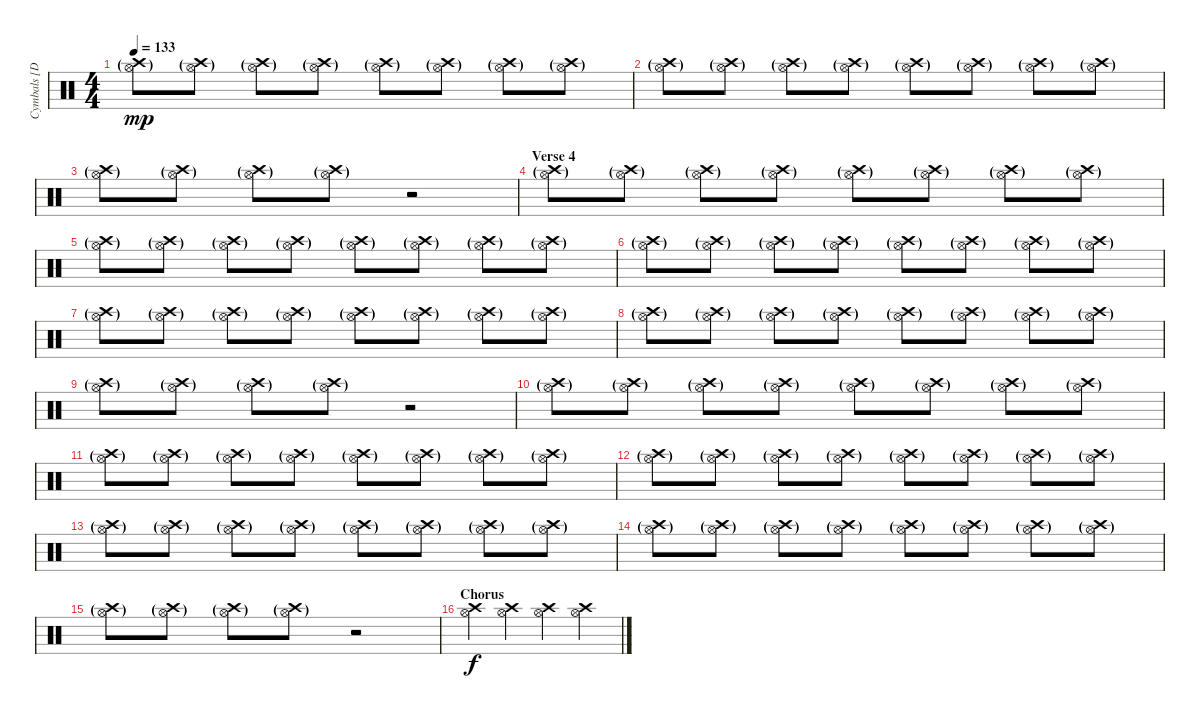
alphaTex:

\track ("Cymbals [Dave Grohl]" "Cymbals [D") {instrument percussion}
\staff {score}
\articulation defaults
\ts (4 4)
\tempo 133
\clef neutral
\ks c
("Crash high (hit)"{g} "Hi-Hat (open)"{g}).8{dy mp} ("Crash high (hit)"{g} "Hi-Hat (open)"{g}).8 ("Crash high (hit)"{g} "Hi-Hat (open)"{g}).8 ("Crash high (hit)"{g} "Hi-Hat (open)"{g}).8 ("Crash high (hit)"{g} "Hi-Hat (open)"{g}).8 ("Crash high (hit)"{g} "Hi-Hat (open)"{g}).8 ("Crash high (hit)"{g} "Hi-Hat (open)"{g}).8 ("Crash high (hit)"{g} "Hi-Hat (open)"{g}).8 |
("Crash high (hit)"{g} "Hi-Hat (open)"{g}).8 ("Crash high (hit)"{g} "Hi-Hat (open)"{g}).8 ("Crash high (hit)"{g} "Hi-Hat (open)"{g}).8 ("Crash high (hit)"{g} "Hi-Hat (open)"{g}).8 ("Crash high (hit)"{g} "Hi-Hat (open)"{g}).8 ("Crash high (hit)"{g} "Hi-Hat (open)"{g}).8 ("Crash high (hit)"{g} "Hi-Hat (open)"{g}).8 ("Crash high (hit)"{g} "Hi-Hat (open)"{g}).8 |
("Crash high (hit)"{g} "Hi-Hat (open)"{g}).8 ("Crash high (hit)"{g} "Hi-Hat (open)"{g}).8 ("Crash high (hit)"{g} "Hi-Hat (open)"{g}).8 ("Crash high (hit)"{g} "Hi-Hat (open)"{g}).8 r.2 |
\section ("" "Verse 4")
("Crash high (hit)"{g} "Hi-Hat (open)"{g}).8 ("Crash high (hit)"{g} "Hi-Hat (open)"{g}).8 ("Crash high (hit)"{g} "Hi-Hat (open)"{g}).8 ("Crash high (hit)"{g} "Hi-Hat (open)"{g}).8 ("Crash high (hit)"{g} "Hi-Hat (open)"{g}).8 ("Crash high (hit)"{g} "Hi-Hat (open)"{g}).8 ("Crash high (hit)"{g} "Hi-Hat (open)"{g}).8 ("Crash high (hit)"{g} "Hi-Hat (open)"{g}).8 |
("Crash high (hit)"{g} "Hi-Hat (open)"{g}).8 ("Crash high (hit)"{g} "Hi-Hat (open)"{g}).8 ("Crash high (hit)"{g} "Hi-Hat (open)"{g}).8 ("Crash high (hit)"{g} "Hi-Hat (open)"{g}).8 ("Crash high (hit)"{g} "Hi-Hat (open)"{g}).8 ("Crash high (hit)"{g} "Hi-Hat (open)"{g}).8 ("Crash high (hit)"{g} "Hi-Hat (open)"{g}).8 ("Crash high (hit)"{g} "Hi-Hat (open)"{g}).8 |
("Crash high (hit)"{g} "Hi-Hat (open)"{g}).8 ("Crash high (hit)"{g} "Hi-Hat (open)"{g}).8 ("Crash high (hit)"{g} "Hi-Hat (open)"{g}).8 ("Crash high (hit)"{g} "Hi-Hat (open)"{g}).8 ("Crash high (hit)"{g} "Hi-Hat (open)"{g}).8 ("Crash high (hit)"{g} "Hi-Hat (open)"{g}).8 ("Crash high (hit)"{g} "Hi-Hat (open)"{g}).8 ("Crash high (hit)"{g} "Hi-Hat (open)"{g}).8 |
("Crash high (hit)"{g} "Hi-Hat (open)"{g}).8 ("Crash high (hit)"{g} "Hi-Hat (open)"{g}).8 ("Crash high (hit)"{g} "Hi-Hat (open)"{g}).8 ("Crash high (hit)"{g} "Hi-Hat (open)"{g}).8 ("Crash high (hit)"{g} "Hi-Hat (open)"{g}).8 ("Crash high (hit)"{g} "Hi-Hat (open)"{g}).8 ("Crash high (hit)"{g} "Hi-Hat (open)"{g}).8 ("Crash high (hit)"{g} "Hi-Hat (open)"{g}).8 |
("Crash high (hit)"{g} "Hi-Hat (open)"{g}).8 ("Crash high (hit)"{g} "Hi-Hat (open)"{g}).8 ("Crash high (hit)"{g} "Hi-Hat (open)"{g}).8 ("Crash high (hit)"{g} "Hi-Hat (open)"{g}).8 ("Crash high (hit)"{g} "Hi-Hat (open)"{g}).8 ("Crash high (hit)"{g} "Hi-Hat (open)"{g}).8 ("Crash high (hit)"{g} "Hi-Hat (open)"{g}).8 ("Crash high (hit)"{g} "Hi-Hat (open)"{g}).8 |
("Crash high (hit)"{g} "Hi-Hat (open)"{g}).8 ("Crash high (hit)"{g} "Hi-Hat (open)"{g}).8 ("Crash high (hit)"{g} "Hi-Hat (open)"{g}).8 ("Crash high (hit)"{g} "Hi-Hat (open)"{g}).8 r.2 |
("Crash high (hit)"{g} "Hi-Hat (open)"{g}).8 ("Crash high (hit)"{g} "Hi-Hat (open)"{g}).8 ("Crash high (hit)"{g} "Hi-Hat (open)"{g}).8 ("Crash high (hit)"{g} "Hi-Hat (open)"{g}).8 ("Crash high (hit)"{g} "Hi-Hat (open)"{g}).8 ("Crash high (hit)"{g} "Hi-Hat (open)"{g}).8 ("Crash high (hit)"{g} "Hi-Hat (open)"{g}).8 ("Crash high (hit)"{g} "Hi-Hat (open)"{g}).8 |
("Crash high (hit)"{g} "Hi-Hat (open)"{g}).8 ("Crash high (hit)"{g} "Hi-Hat (open)"{g}).8 ("Crash high (hit)"{g} "Hi-Hat (open)"{g}).8 ("Crash high (hit)"{g} "Hi-Hat (open)"{g}).8 ("Crash high (hit)"{g} "Hi-Hat (open)"{g}).8 ("Crash high (hit)"{g} "Hi-Hat (open)"{g}).8 ("Crash high (hit)"{g} "Hi-Hat (open)"{g}).8 ("Crash high (hit)"{g} "Hi-Hat (open)"{g}).8 |
("Crash high (hit)"{g} "Hi-Hat (open)"{g}).8 ("Crash high (hit)"{g} "Hi-Hat (open)"{g}).8 ("Crash high (hit)"{g} "Hi-Hat (open)"{g}).8 ("Crash high (hit)"{g} "Hi-Hat (open)"{g}).8 ("Crash high (hit)"{g} "Hi-Hat (open)"{g}).8 ("Crash high (hit)"{g} "Hi-Hat (open)"{g}).8 ("Crash high (hit)"{g} "Hi-Hat (open)"{g}).8 ("Crash high (hit)"{g} "Hi-Hat (open)"{g}).8 |
("Crash high (hit)"{g} "Hi-Hat (open)"{g}).8 ("Crash high (hit)"{g} "Hi-Hat (open)"{g}).8 ("Crash high (hit)"{g} "Hi-Hat (open)"{g}).8 ("Crash high (hit)"{g} "Hi-Hat (open)"{g}).8 ("Crash high (hit)"{g} "Hi-Hat (open)"{g}).8 ("Crash high (hit)"{g} "Hi-Hat (open)"{g}).8 ("Crash high (hit)"{g} "Hi-Hat (open)"{g}).8 ("Crash high (hit)"{g} "Hi-Hat (open)"{g}).8 |
("Crash high (hit)"{g} "Hi-Hat (open)"{g}).8 ("Crash high (hit)"{g} "Hi-Hat (open)"{g}).8 ("Crash high (hit)"{g} "Hi-Hat (open)"{g}).8 ("Crash high (hit)"{g} "Hi-Hat (open)"{g}).8 ("Crash high (hit)"{g} "Hi-Hat (open)"{g}).8 ("Crash high (hit)"{g} "Hi-Hat (open)"{g}).8 ("Crash high (hit)"{g} "Hi-Hat (open)"{g}).8 ("Crash high (hit)"{g} "Hi-Hat (open)"{g}).8 |
("Crash high (hit)"{g} "Hi-Hat (open)"{g}).8 ("Crash high (hit)"{g} "Hi-Hat (open)"{g}).8 ("Crash high (hit)"{g} "Hi-Hat (open)"{g}).8 ("Crash high (hit)"{g} "Hi-Hat (open)"{g}).8 r.2 |
\section ("" "Chorus")
("Hi-Hat (open)" "Crash high (hit)").4{dy f volume 11 balance 8} ("Hi-Hat (open)" "Crash high (hit)").4 ("Hi-Hat (open)" "Crash high (hit)").4 ("Hi-Hat (open)" "Crash high (hit)").4
